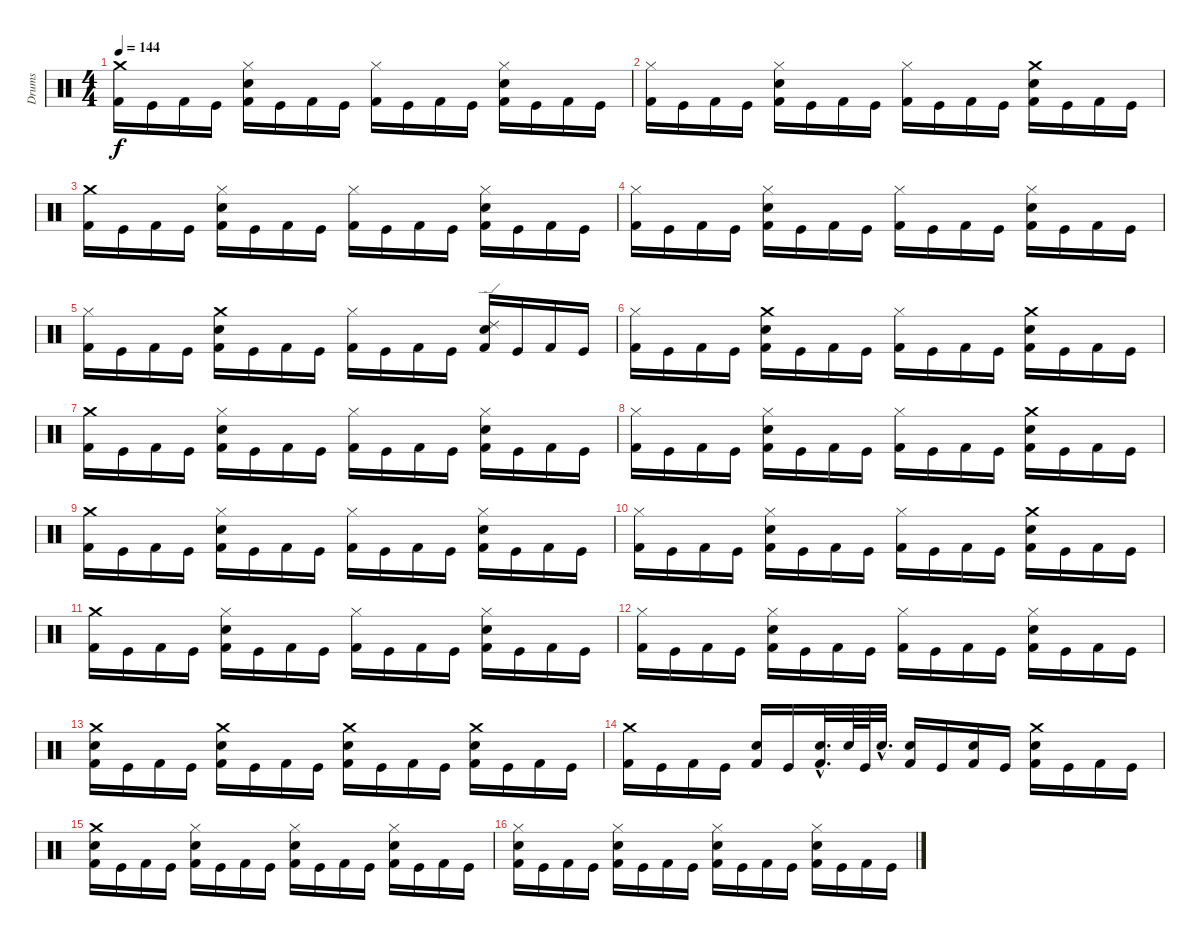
\track ("Drums" "Drums") {instrument percussion}
\staff {score}
\articulation defaults
\ts (4 4)
\tempo 144
\clef neutral
\ks c
("Crash medium (hit)" "Kick (hit) 2").16{dy f} "Kick (hit)".16 "Kick (hit) 2".16 "Kick (hit)".16 ("Snare (hit) 2" "Hi-Hat (closed)" "Kick (hit) 2").16 "Kick (hit)".16 "Kick (hit) 2".16 "Kick (hit)".16 ("Hi-Hat (closed)" "Kick (hit) 2").16 "Kick (hit)".16 "Kick (hit) 2".16 "Kick (hit)".16 ("Snare (hit) 2" "Hi-Hat (closed)" "Kick (hit) 2").16 "Kick (hit)".16 "Kick (hit) 2".16 "Kick (hit)".16 |
("Hi-Hat (closed)" "Kick (hit) 2").16 "Kick (hit)".16 "Kick (hit) 2".16 "Kick (hit)".16 ("Snare (hit) 2" "Hi-Hat (closed)" "Kick (hit) 2").16 "Kick (hit)".16 "Kick (hit) 2".16 "Kick (hit)".16 ("Hi-Hat (closed)" "Kick (hit) 2").16 "Kick (hit)".16 "Kick (hit) 2".16 "Kick (hit)".16 ("Crash medium (hit)" "Snare (hit) 2" "Kick (hit) 2").16 "Kick (hit)".16 "Kick (hit) 2".16 "Kick (hit)".16 |
("Crash medium (hit)" "Kick (hit) 2").16 "Kick (hit)".16 "Kick (hit) 2".16 "Kick (hit)".16 ("Snare (hit) 2" "Hi-Hat (closed)" "Kick (hit) 2").16 "Kick (hit)".16 "Kick (hit) 2".16 "Kick (hit)".16 ("Hi-Hat (closed)" "Kick (hit) 2").16 "Kick (hit)".16 "Kick (hit) 2".16 "Kick (hit)".16 ("Snare (hit) 2" "Hi-Hat (closed)" "Kick (hit) 2").16 "Kick (hit)".16 "Kick (hit) 2".16 "Kick (hit)".16 |
("Hi-Hat (closed)" "Kick (hit) 2").16 "Kick (hit)".16 "Kick (hit) 2".16 "Kick (hit)".16 ("Snare (hit) 2" "Hi-Hat (closed)" "Kick (hit) 2").16 "Kick (hit)".16 "Kick (hit) 2".16 "Kick (hit)".16 ("Hi-Hat (closed)" "Kick (hit) 2").16 "Kick (hit)".16 "Kick (hit) 2".16 "Kick (hit)".16 ("Snare (hit) 2" "Hi-Hat (closed)" "Kick (hit) 2").16 "Kick (hit)".16 "Kick (hit) 2".16 "Kick (hit)".16 |
("Hi-Hat (closed)" "Kick (hit) 2").16 "Kick (hit)".16 "Kick (hit) 2".16 "Kick (hit)".16 ("Crash medium (hit)" "Snare (hit) 2" "Kick (hit) 2").16 "Kick (hit)".16 "Kick (hit) 2".16 "Kick (hit)".16 ("Hi-Hat (closed)" "Kick (hit) 2").16 "Kick (hit)".16 "Kick (hit) 2".16 "Kick (hit)".16 ("Ride (edge) 2" "Snare (hit) 2" "Kick (hit) 2").16 "Kick (hit)".16 "Kick (hit) 2".16 "Kick (hit)".16 |
("Hi-Hat (closed)" "Kick (hit) 2").16 "Kick (hit)".16 "Kick (hit) 2".16 "Kick (hit)".16 ("Crash medium (hit)" "Snare (hit) 2" "Kick (hit) 2").16 "Kick (hit)".16 "Kick (hit) 2".16 "Kick (hit)".16 ("Hi-Hat (closed)" "Kick (hit) 2").16 "Kick (hit)".16 "Kick (hit) 2".16 "Kick (hit)".16 ("Crash medium (hit)" "Snare (hit) 2" "Kick (hit) 2").16 "Kick (hit)".16 "Kick (hit) 2".16 "Kick (hit)".16 |
("Crash medium (hit)" "Kick (hit) 2").16 "Kick (hit)".16 "Kick (hit) 2".16 "Kick (hit)".16 ("Snare (hit) 2" "Hi-Hat (closed)" "Kick (hit) 2").16 "Kick (hit)".16 "Kick (hit) 2".16 "Kick (hit)".16 ("Hi-Hat (closed)" "Kick (hit) 2").16 "Kick (hit)".16 "Kick (hit) 2".16 "Kick (hit)".16 ("Snare (hit) 2" "Hi-Hat (closed)" "Kick (hit) 2").16 "Kick (hit)".16 "Kick (hit) 2".16 "Kick (hit)".16 |
("Hi-Hat (closed)" "Kick (hit) 2").16 "Kick (hit)".16 "Kick (hit) 2".16 "Kick (hit)".16 ("Snare (hit) 2" "Hi-Hat (closed)" "Kick (hit) 2").16 "Kick (hit)".16 "Kick (hit) 2".16 "Kick (hit)".16 ("Hi-Hat (closed)" "Kick (hit) 2").16 "Kick (hit)".16 "Kick (hit) 2".16 "Kick (hit)".16 ("Crash medium (hit)" "Snare (hit) 2" "Kick (hit) 2").16 "Kick (hit)".16 "Kick (hit) 2".16 "Kick (hit)".16 |
("Crash medium (hit)" "Kick (hit) 2").16 "Kick (hit)".16 "Kick (hit) 2".16 "Kick (hit)".16 ("Snare (hit) 2" "Hi-Hat (closed)" "Kick (hit) 2").16 "Kick (hit)".16 "Kick (hit) 2".16 "Kick (hit)".16 ("Hi-Hat (closed)" "Kick (hit) 2").16 "Kick (hit)".16 "Kick (hit) 2".16 "Kick (hit)".16 ("Snare (hit) 2" "Hi-Hat (closed)" "Kick (hit) 2").16 "Kick (hit)".16 "Kick (hit) 2".16 "Kick (hit)".16 |
("Hi-Hat (closed)" "Kick (hit) 2").16 "Kick (hit)".16 "Kick (hit) 2".16 "Kick (hit)".16 ("Snare (hit) 2" "Hi-Hat (closed)" "Kick (hit) 2").16 "Kick (hit)".16 "Kick (hit) 2".16 "Kick (hit)".16 ("Hi-Hat (closed)" "Kick (hit) 2").16 "Kick (hit)".16 "Kick (hit) 2".16 "Kick (hit)".16 ("Crash medium (hit)" "Snare (hit) 2" "Kick (hit) 2").16 "Kick (hit)".16 "Kick (hit) 2".16 "Kick (hit)".16 |
("Crash medium (hit)" "Kick (hit) 2").16 "Kick (hit)".16 "Kick (hit) 2".16 "Kick (hit)".16 ("Snare (hit) 2" "Hi-Hat (closed)" "Kick (hit) 2").16 "Kick (hit)".16 "Kick (hit) 2".16 "Kick (hit)".16 ("Hi-Hat (closed)" "Kick (hit) 2").16 "Kick (hit)".16 "Kick (hit) 2".16 "Kick (hit)".16 ("Snare (hit) 2" "Hi-Hat (closed)" "Kick (hit) 2").16 "Kick (hit)".16 "Kick (hit) 2".16 "Kick (hit)".16 |
("Hi-Hat (closed)" "Kick (hit) 2").16 "Kick (hit)".16 "Kick (hit) 2".16 "Kick (hit)".16 ("Snare (hit) 2" "Hi-Hat (closed)" "Kick (hit) 2").16 "Kick (hit)".16 "Kick (hit) 2".16 "Kick (hit)".16 ("Hi-Hat (closed)" "Kick (hit) 2").16 "Kick (hit)".16 "Kick (hit) 2".16 "Kick (hit)".16 ("Snare (hit) 2" "Hi-Hat (closed)" "Kick (hit) 2").16 "Kick (hit)".16 "Kick (hit) 2".16 "Kick (hit)".16 |
("Crash medium (hit)" "Snare (hit) 2" "Kick (hit) 2").16 "Kick (hit)".16 "Kick (hit) 2".16 "Kick (hit)".16 ("Crash medium (hit)" "Snare (hit) 2" "Kick (hit) 2").16 "Kick (hit)".16 "Kick (hit) 2".16 "Kick (hit)".16 ("Crash medium (hit)" "Snare (hit) 2" "Kick (hit) 2").16 "Kick (hit)".16 "Kick (hit) 2".16 "Kick (hit)".16 ("Crash medium (hit)" "Snare (hit) 2" "Kick (hit) 2").16 "Kick (hit)".16 "Kick (hit) 2".16 "Kick (hit)".16 |
("Crash medium (hit)" "Kick (hit) 2").16 "Kick (hit)".16 "Kick (hit) 2".16 "Kick (hit)".16 ("Snare (hit) 2" "Kick (hit) 2").16 "Kick (hit)".16 ("Snare (hit) 2"{hac} "Kick (hit) 2"{hac}).32{d} "Snare (hit) 2".64 "Kick (hit)".64 "Snare (hit) 2"{hac}.32{d} ("Snare (hit) 2" "Kick (hit) 2").16 "Kick (hit)".16 ("Snare (hit) 2" "Kick (hit) 2").16 "Kick (hit)".16 ("Snare (hit) 2" "Crash medium (hit)" "Kick (hit) 2").16 "Kick (hit)".16 "Kick (hit) 2".16 "Kick (hit)".16 |
("Snare (hit) 2" "Crash medium (hit)" "Kick (hit) 2").16 "Kick (hit)".16 "Kick (hit) 2".16 "Kick (hit)".16 ("Hi-Hat (closed)" "Snare (hit) 2" "Kick (hit) 2").16 "Kick (hit)".16 "Kick (hit) 2".16 "Kick (hit)".16 ("Hi-Hat (closed)" "Snare (hit) 2" "Kick (hit) 2").16 "Kick (hit)".16 "Kick (hit) 2".16 "Kick (hit)".16 ("Hi-Hat (closed)" "Snare (hit) 2" "Kick (hit) 2").16 "Kick (hit)".16 "Kick (hit) 2".16 "Kick (hit)".16 |
("Hi-Hat (closed)" "Snare (hit) 2" "Kick (hit) 2").16 "Kick (hit)".16 "Kick (hit) 2".16 "Kick (hit)".16 ("Snare (hit) 2" "Hi-Hat (closed)" "Kick (hit) 2").16 "Kick (hit)".16 "Kick (hit) 2".16 "Kick (hit)".16 ("Hi-Hat (closed)" "Snare (hit) 2" "Kick (hit) 2").16 "Kick (hit)".16 "Kick (hit) 2".16 "Kick (hit)".16 ("Snare (hit) 2" "Hi-Hat (closed)" "Kick (hit) 2").16 "Kick (hit)".16 "Kick (hit) 2".16 "Kick (hit)".16
